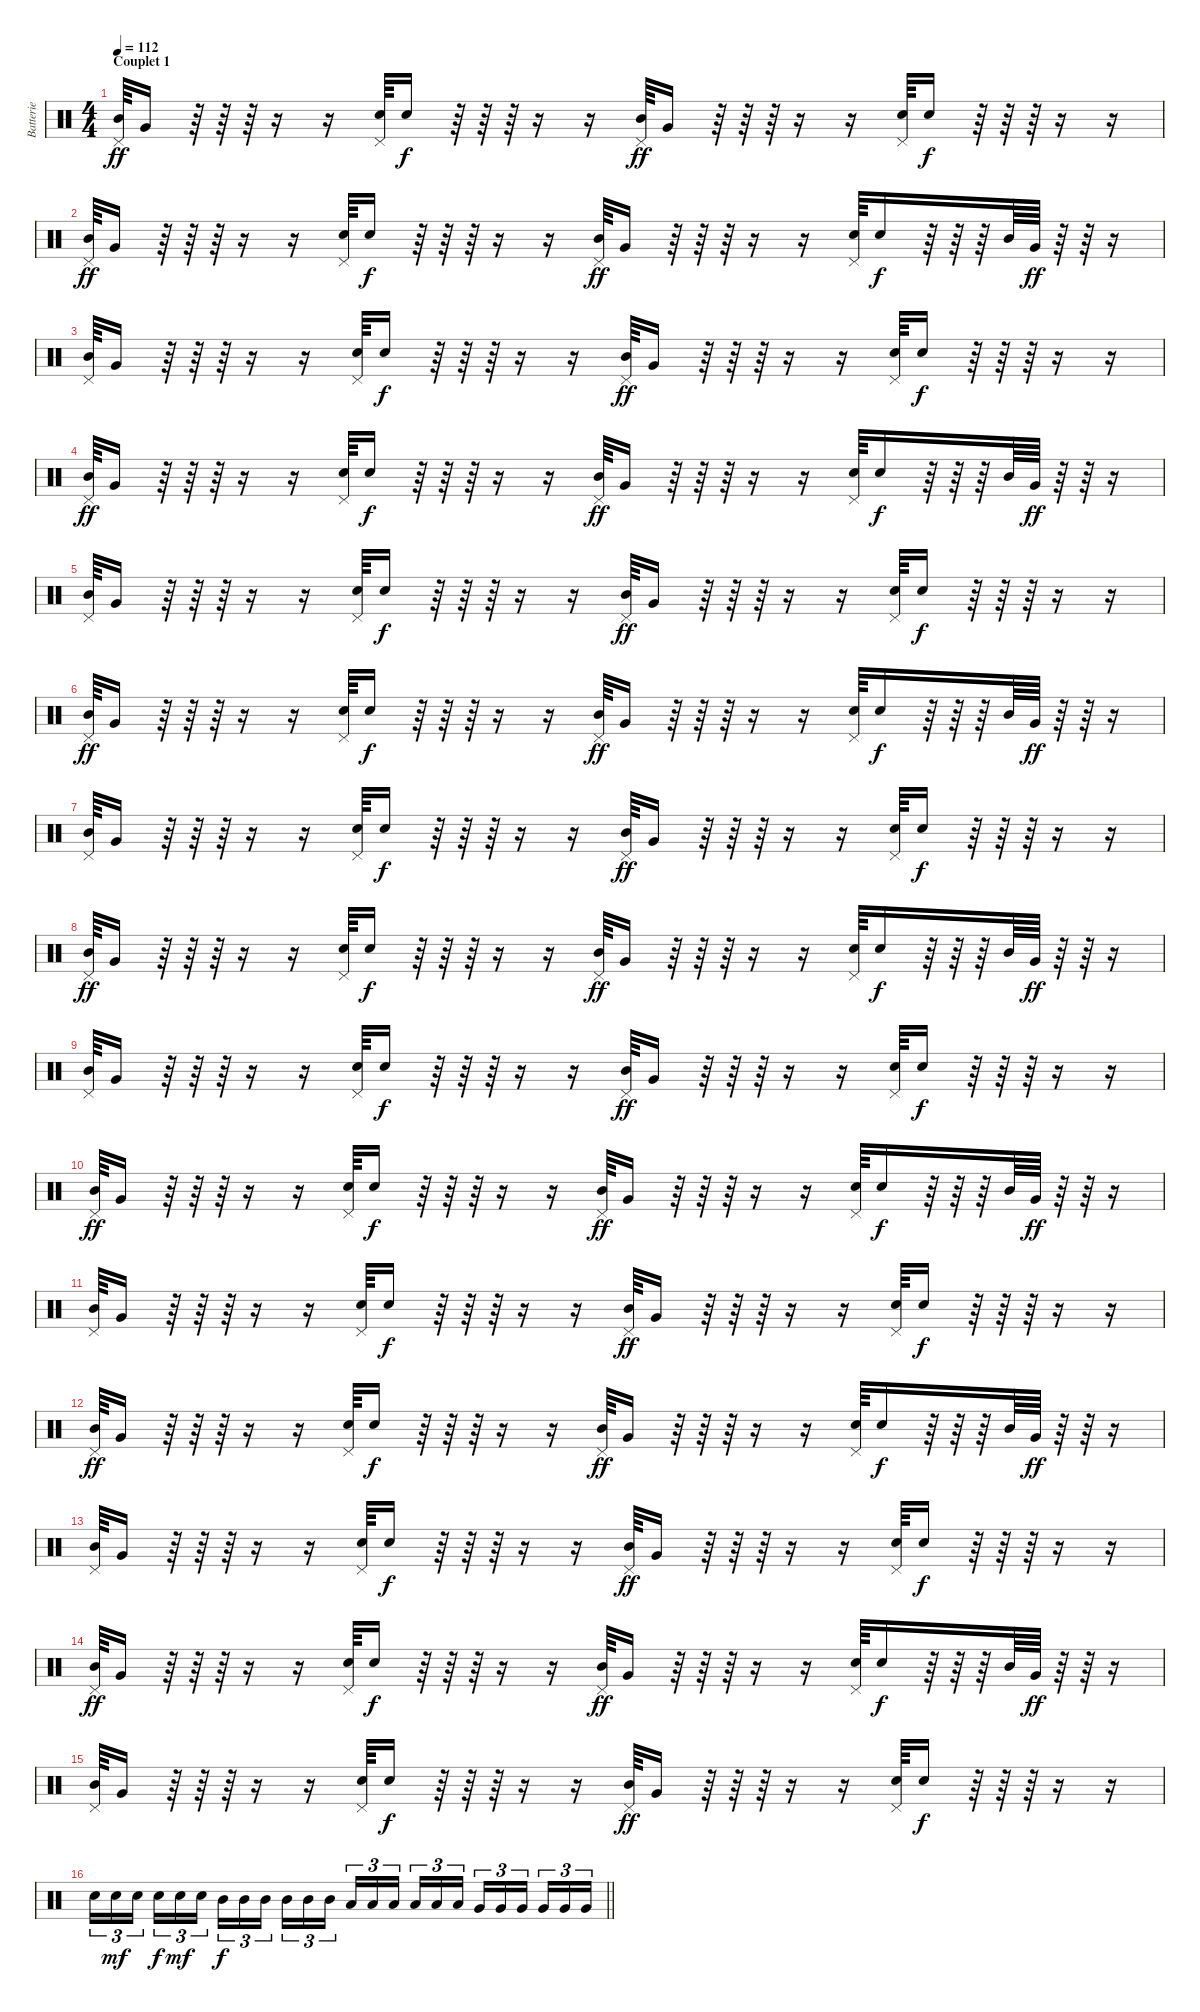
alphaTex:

\track ("Batterie" "Batterie") {instrument percussion}
\staff {score}
\articulation defaults
\ts (4 4)
\section ("" "Couplet 1")
\tempo 112
\clef neutral
\ks c
("Mid Tom (hit)" "Pedal Hi-Hat (hit)").64{dy ff} "Very Low Tom (hit)".16 r.64 r.64 r.64 r.16 r.16 ("Electric Snare (hit)" "Pedal Hi-Hat (hit)").64 "Electric Snare (hit)".16{dy f} r.64 r.64 r.64 r.16 r.16 ("Mid Tom (hit)" "Pedal Hi-Hat (hit)").64{dy ff} "Very Low Tom (hit)".16 r.64 r.64 r.64 r.16 r.16 ("Electric Snare (hit)" "Pedal Hi-Hat (hit)").64 "Electric Snare (hit)".16{dy f} r.64 r.64 r.64 r.16 r.16 |
("Mid Tom (hit)" "Pedal Hi-Hat (hit)").64{dy ff} "Very Low Tom (hit)".16 r.64 r.64 r.64 r.16 r.16 ("Electric Snare (hit)" "Pedal Hi-Hat (hit)").64 "Electric Snare (hit)".16{dy f} r.64 r.64 r.64 r.16 r.16 ("Mid Tom (hit)" "Pedal Hi-Hat (hit)").64{dy ff} "Very Low Tom (hit)".16 r.64 r.64 r.64 r.16 r.16 ("Electric Snare (hit)" "Pedal Hi-Hat (hit)").64 "Electric Snare (hit)".16{dy f} r.64 r.64 r.64 "Mid Tom (hit)".64 "Very Low Tom (hit)".64{dy ff} r.64 r.64 r.16 |
("Mid Tom (hit)" "Pedal Hi-Hat (hit)").64 "Very Low Tom (hit)".16 r.64 r.64 r.64 r.16 r.16 ("Electric Snare (hit)" "Pedal Hi-Hat (hit)").64 "Electric Snare (hit)".16{dy f} r.64 r.64 r.64 r.16 r.16 ("Mid Tom (hit)" "Pedal Hi-Hat (hit)").64{dy ff} "Very Low Tom (hit)".16 r.64 r.64 r.64 r.16 r.16 ("Electric Snare (hit)" "Pedal Hi-Hat (hit)").64 "Electric Snare (hit)".16{dy f} r.64 r.64 r.64 r.16 r.16 |
("Mid Tom (hit)" "Pedal Hi-Hat (hit)").64{dy ff} "Very Low Tom (hit)".16 r.64 r.64 r.64 r.16 r.16 ("Electric Snare (hit)" "Pedal Hi-Hat (hit)").64 "Electric Snare (hit)".16{dy f} r.64 r.64 r.64 r.16 r.16 ("Mid Tom (hit)" "Pedal Hi-Hat (hit)").64{dy ff} "Very Low Tom (hit)".16 r.64 r.64 r.64 r.16 r.16 ("Electric Snare (hit)" "Pedal Hi-Hat (hit)").64 "Electric Snare (hit)".16{dy f} r.64 r.64 r.64 "Mid Tom (hit)".64 "Very Low Tom (hit)".64{dy ff} r.64 r.64 r.16 |
("Mid Tom (hit)" "Pedal Hi-Hat (hit)").64 "Very Low Tom (hit)".16 r.64 r.64 r.64 r.16 r.16 ("Electric Snare (hit)" "Pedal Hi-Hat (hit)").64 "Electric Snare (hit)".16{dy f} r.64 r.64 r.64 r.16 r.16 ("Mid Tom (hit)" "Pedal Hi-Hat (hit)").64{dy ff} "Very Low Tom (hit)".16 r.64 r.64 r.64 r.16 r.16 ("Electric Snare (hit)" "Pedal Hi-Hat (hit)").64 "Electric Snare (hit)".16{dy f} r.64 r.64 r.64 r.16 r.16 |
("Mid Tom (hit)" "Pedal Hi-Hat (hit)").64{dy ff} "Very Low Tom (hit)".16 r.64 r.64 r.64 r.16 r.16 ("Electric Snare (hit)" "Pedal Hi-Hat (hit)").64 "Electric Snare (hit)".16{dy f} r.64 r.64 r.64 r.16 r.16 ("Mid Tom (hit)" "Pedal Hi-Hat (hit)").64{dy ff} "Very Low Tom (hit)".16 r.64 r.64 r.64 r.16 r.16 ("Electric Snare (hit)" "Pedal Hi-Hat (hit)").64 "Electric Snare (hit)".16{dy f} r.64 r.64 r.64 "Mid Tom (hit)".64 "Very Low Tom (hit)".64{dy ff} r.64 r.64 r.16 |
("Mid Tom (hit)" "Pedal Hi-Hat (hit)").64 "Very Low Tom (hit)".16 r.64 r.64 r.64 r.16 r.16 ("Electric Snare (hit)" "Pedal Hi-Hat (hit)").64 "Electric Snare (hit)".16{dy f} r.64 r.64 r.64 r.16 r.16 ("Mid Tom (hit)" "Pedal Hi-Hat (hit)").64{dy ff} "Very Low Tom (hit)".16 r.64 r.64 r.64 r.16 r.16 ("Electric Snare (hit)" "Pedal Hi-Hat (hit)").64 "Electric Snare (hit)".16{dy f} r.64 r.64 r.64 r.16 r.16 |
("Mid Tom (hit)" "Pedal Hi-Hat (hit)").64{dy ff} "Very Low Tom (hit)".16 r.64 r.64 r.64 r.16 r.16 ("Electric Snare (hit)" "Pedal Hi-Hat (hit)").64 "Electric Snare (hit)".16{dy f} r.64 r.64 r.64 r.16 r.16 ("Mid Tom (hit)" "Pedal Hi-Hat (hit)").64{dy ff} "Very Low Tom (hit)".16 r.64 r.64 r.64 r.16 r.16 ("Electric Snare (hit)" "Pedal Hi-Hat (hit)").64 "Electric Snare (hit)".16{dy f} r.64 r.64 r.64 "Mid Tom (hit)".64 "Very Low Tom (hit)".64{dy ff} r.64 r.64 r.16 |
("Mid Tom (hit)" "Pedal Hi-Hat (hit)").64 "Very Low Tom (hit)".16 r.64 r.64 r.64 r.16 r.16 ("Electric Snare (hit)" "Pedal Hi-Hat (hit)").64 "Electric Snare (hit)".16{dy f} r.64 r.64 r.64 r.16 r.16 ("Mid Tom (hit)" "Pedal Hi-Hat (hit)").64{dy ff} "Very Low Tom (hit)".16 r.64 r.64 r.64 r.16 r.16 ("Electric Snare (hit)" "Pedal Hi-Hat (hit)").64 "Electric Snare (hit)".16{dy f} r.64 r.64 r.64 r.16 r.16 |
("Mid Tom (hit)" "Pedal Hi-Hat (hit)").64{dy ff} "Very Low Tom (hit)".16 r.64 r.64 r.64 r.16 r.16 ("Electric Snare (hit)" "Pedal Hi-Hat (hit)").64 "Electric Snare (hit)".16{dy f} r.64 r.64 r.64 r.16 r.16 ("Mid Tom (hit)" "Pedal Hi-Hat (hit)").64{dy ff} "Very Low Tom (hit)".16 r.64 r.64 r.64 r.16 r.16 ("Electric Snare (hit)" "Pedal Hi-Hat (hit)").64 "Electric Snare (hit)".16{dy f} r.64 r.64 r.64 "Mid Tom (hit)".64 "Very Low Tom (hit)".64{dy ff} r.64 r.64 r.16 |
("Mid Tom (hit)" "Pedal Hi-Hat (hit)").64 "Very Low Tom (hit)".16 r.64 r.64 r.64 r.16 r.16 ("Electric Snare (hit)" "Pedal Hi-Hat (hit)").64 "Electric Snare (hit)".16{dy f} r.64 r.64 r.64 r.16 r.16 ("Mid Tom (hit)" "Pedal Hi-Hat (hit)").64{dy ff} "Very Low Tom (hit)".16 r.64 r.64 r.64 r.16 r.16 ("Electric Snare (hit)" "Pedal Hi-Hat (hit)").64 "Electric Snare (hit)".16{dy f} r.64 r.64 r.64 r.16 r.16 |
("Mid Tom (hit)" "Pedal Hi-Hat (hit)").64{dy ff} "Very Low Tom (hit)".16 r.64 r.64 r.64 r.16 r.16 ("Electric Snare (hit)" "Pedal Hi-Hat (hit)").64 "Electric Snare (hit)".16{dy f} r.64 r.64 r.64 r.16 r.16 ("Mid Tom (hit)" "Pedal Hi-Hat (hit)").64{dy ff} "Very Low Tom (hit)".16 r.64 r.64 r.64 r.16 r.16 ("Electric Snare (hit)" "Pedal Hi-Hat (hit)").64 "Electric Snare (hit)".16{dy f} r.64 r.64 r.64 "Mid Tom (hit)".64 "Very Low Tom (hit)".64{dy ff} r.64 r.64 r.16 |
("Mid Tom (hit)" "Pedal Hi-Hat (hit)").64 "Very Low Tom (hit)".16 r.64 r.64 r.64 r.16 r.16 ("Electric Snare (hit)" "Pedal Hi-Hat (hit)").64 "Electric Snare (hit)".16{dy f} r.64 r.64 r.64 r.16 r.16 ("Mid Tom (hit)" "Pedal Hi-Hat (hit)").64{dy ff} "Very Low Tom (hit)".16 r.64 r.64 r.64 r.16 r.16 ("Electric Snare (hit)" "Pedal Hi-Hat (hit)").64 "Electric Snare (hit)".16{dy f} r.64 r.64 r.64 r.16 r.16 |
("Mid Tom (hit)" "Pedal Hi-Hat (hit)").64{dy ff} "Very Low Tom (hit)".16 r.64 r.64 r.64 r.16 r.16 ("Electric Snare (hit)" "Pedal Hi-Hat (hit)").64 "Electric Snare (hit)".16{dy f} r.64 r.64 r.64 r.16 r.16 ("Mid Tom (hit)" "Pedal Hi-Hat (hit)").64{dy ff} "Very Low Tom (hit)".16 r.64 r.64 r.64 r.16 r.16 ("Electric Snare (hit)" "Pedal Hi-Hat (hit)").64 "Electric Snare (hit)".16{dy f} r.64 r.64 r.64 "Mid Tom (hit)".64 "Very Low Tom (hit)".64{dy ff} r.64 r.64 r.16 |
("Mid Tom (hit)" "Pedal Hi-Hat (hit)").64 "Very Low Tom (hit)".16 r.64 r.64 r.64 r.16 r.16 ("Electric Snare (hit)" "Pedal Hi-Hat (hit)").64 "Electric Snare (hit)".16{dy f} r.64 r.64 r.64 r.16 r.16 ("Mid Tom (hit)" "Pedal Hi-Hat (hit)").64{dy ff} "Very Low Tom (hit)".16 r.64 r.64 r.64 r.16 r.16 ("Electric Snare (hit)" "Pedal Hi-Hat (hit)").64 "Electric Snare (hit)".16{dy f} r.64 r.64 r.64 r.16 r.16 |
\barLineRight lightlight "Electric Snare (hit)".16{tu (3 2)} "Electric Snare (hit)".16{tu (3 2) dy mf} "Electric Snare (hit)".16{tu (3 2) beam splitsecondary} "Electric Snare (hit)".16{tu (3 2) dy f} "Electric Snare (hit)".16{tu (3 2) dy mf} "Electric Snare (hit)".16{tu (3 2)} "Mid Tom (hit)".16{tu (3 2) dy f} "Mid Tom (hit)".16{tu (3 2)} "Mid Tom (hit)".16{tu (3 2) beam splitsecondary} "Mid Tom (hit)".16{tu (3 2)} "Mid Tom (hit)".16{tu (3 2)} "Mid Tom (hit)".16{tu (3 2)} "Low Tom (hit)".16{tu (3 2)} "Low Tom (hit)".16{tu (3 2)} "Low Tom (hit)".16{tu (3 2) beam splitsecondary} "Low Tom (hit)".16{tu (3 2)} "Low Tom (hit)".16{tu (3 2)} "Low Tom (hit)".16{tu (3 2)} "Very Low Tom (hit)".16{tu (3 2)} "Very Low Tom (hit)".16{tu (3 2)} "Very Low Tom (hit)".16{tu (3 2) beam splitsecondary} "Very Low Tom (hit)".16{tu (3 2)} "Very Low Tom (hit)".16{tu (3 2)} "Very Low Tom (hit)".16{tu (3 2)}
